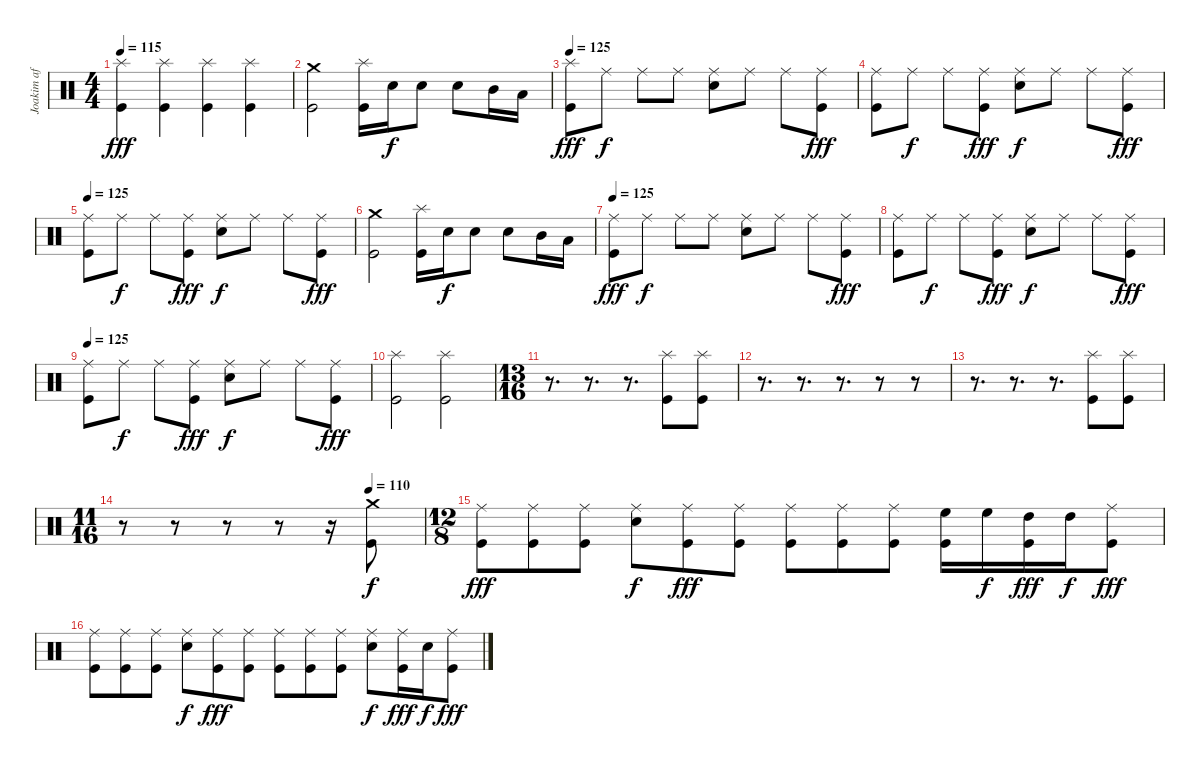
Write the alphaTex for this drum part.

\track ("Joakim af Grave" "Joakim af ") {instrument percussion}
\staff {score}
\articulation defaults
\ts (4 4)
\tempo 115
\clef neutral
\ks c
("Splash (hit)" "Kick (hit)").4{dy fff} ("Splash (hit)" "Kick (hit)").4 ("Splash (hit)" "Kick (hit)").4 ("Splash (hit)" "Kick (hit)").4 |
("Crash medium (hit)" "Kick (hit)").2 ("Splash (hit)" "Kick (hit)").16 "Electric Snare (hit)".16{dy f} "Electric Snare (hit)".8 "Electric Snare (hit)".8 "Mid Tom (hit)".16 "Low Tom (hit)".16 |
\tempo 125
("Splash (hit)" "Kick (hit)").8{dy fff} "Ride (middle)".8{dy f} "Ride (middle)".8 "Ride (middle)".8 ("Ride (middle)" "Electric Snare (hit)").8 "Ride (middle)".8 "Ride (middle)".8 ("Ride (middle)" "Kick (hit)").8{dy fff} |
("Ride (middle)" "Kick (hit)").8 "Ride (middle)".8{dy f} "Ride (middle)".8 ("Ride (middle)" "Kick (hit)").8{dy fff} ("Ride (middle)" "Electric Snare (hit)").8{dy f} "Ride (middle)".8 "Ride (middle)".8 ("Ride (middle)" "Kick (hit)").8{dy fff} |
\tempo 125
("Ride (middle)" "Kick (hit)").8 "Ride (middle)".8{dy f} "Ride (middle)".8 ("Ride (middle)" "Kick (hit)").8{dy fff} ("Ride (middle)" "Electric Snare (hit)").8{dy f} "Ride (middle)".8 "Ride (middle)".8 ("Ride (middle)" "Kick (hit)").8{dy fff} |
("Crash medium (hit)" "Kick (hit)").2 ("Splash (hit)" "Kick (hit)").16 "Electric Snare (hit)".16{dy f} "Electric Snare (hit)".8 "Electric Snare (hit)".8 "Mid Tom (hit)".16 "Low Tom (hit)".16 |
\tempo 125
("Ride (middle)" "Kick (hit)").8{dy fff} "Ride (middle)".8{dy f} "Ride (middle)".8 "Ride (middle)".8 ("Ride (middle)" "Electric Snare (hit)").8 "Ride (middle)".8 "Ride (middle)".8 ("Ride (middle)" "Kick (hit)").8{dy fff} |
("Ride (middle)" "Kick (hit)").8 "Ride (middle)".8{dy f} "Ride (middle)".8 ("Ride (middle)" "Kick (hit)").8{dy fff} ("Ride (middle)" "Electric Snare (hit)").8{dy f} "Ride (middle)".8 "Ride (middle)".8 ("Ride (middle)" "Kick (hit)").8{dy fff} |
\tempo 125
("Ride (middle)" "Kick (hit)").8 "Ride (middle)".8{dy f} "Ride (middle)".8 ("Ride (middle)" "Kick (hit)").8{dy fff} ("Ride (middle)" "Electric Snare (hit)").8{dy f} "Ride (middle)".8 "Ride (middle)".8 ("Ride (middle)" "Kick (hit)").8{dy fff} |
("Splash (hit)" "Kick (hit)").2 ("Splash (hit)" "Kick (hit)").2 |
\ts (13 16)
r.8{d} r.8{d} r.8{d} ("Splash (hit)" "Kick (hit)").8 ("Splash (hit)" "Kick (hit)").8 |
r.8{d} r.8{d} r.8{d} r.8 r.8 |
r.8{d} r.8{d} r.8{d} ("Splash (hit)" "Kick (hit)").8 ("Splash (hit)" "Kick (hit)").8 |
\ts (11 16)
\tempo (110 0.8181818181818182)
r.8 r.8 r.8 r.8 r.16 ("Crash medium (hit)" "Kick (hit)").8{dy f} |
\ts (12 8)
("Ride (middle)" "Kick (hit)").8{dy fff} ("Ride (middle)" "Kick (hit)").8 ("Ride (middle)" "Kick (hit)").8 ("Ride (middle)" "Electric Snare (hit)").8{dy f} ("Ride (middle)" "Kick (hit)").8{dy fff} ("Ride (middle)" "Kick (hit)").8 ("Ride (middle)" "Kick (hit)").8 ("Ride (middle)" "Kick (hit)").8 ("Ride (middle)" "Kick (hit)").8 ("High Floor Tom (hit)" "Kick (hit)").16 "High Floor Tom (hit)".16{dy f} ("High Tom (hit)" "Kick (hit)").16{dy fff} "High Tom (hit)".16{dy f} ("Ride (middle)" "Kick (hit)").8{dy fff} |
("Ride (middle)" "Kick (hit)").8 ("Ride (middle)" "Kick (hit)").8 ("Ride (middle)" "Kick (hit)").8 ("Ride (middle)" "Electric Snare (hit)").8{dy f} ("Ride (middle)" "Kick (hit)").8{dy fff} ("Ride (middle)" "Kick (hit)").8 ("Ride (middle)" "Kick (hit)").8 ("Ride (middle)" "Kick (hit)").8 ("Ride (middle)" "Kick (hit)").8 ("Ride (middle)" "Electric Snare (hit)").8{dy f} ("Ride (middle)" "Kick (hit)").16{dy fff} "Electric Snare (hit)".16{dy f} ("Ride (middle)" "Kick (hit)").8{dy fff}
